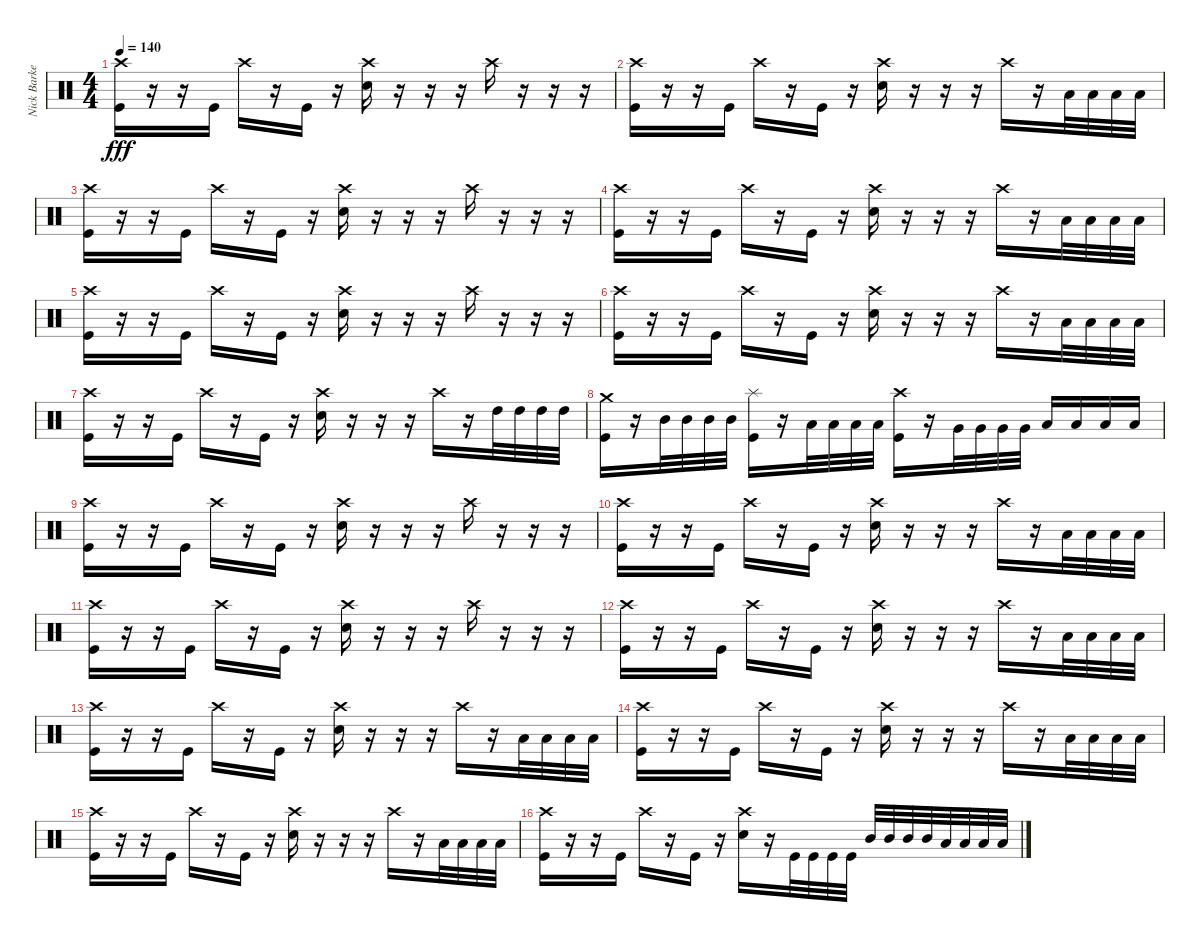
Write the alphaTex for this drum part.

\track ("Nick Barker" "Nick Barke") {instrument percussion}
\staff {score}
\articulation defaults
\ts (4 4)
\tempo 140
\clef neutral
\ks c
("Crash high (hit)" "Kick (hit)").16{dy fff} r.16 r.16 "Kick (hit)".16 "Crash high (hit)".16 r.16 "Kick (hit)".16 r.16 ("Crash high (hit)" "Electric Snare (hit)").16 r.16 r.16 r.16 "Crash high (hit)".16 r.16 r.16 r.16 |
("Crash high (hit)" "Kick (hit)").16 r.16 r.16 "Kick (hit)".16 "Crash high (hit)".16 r.16 "Kick (hit)".16 r.16 ("Crash high (hit)" "Electric Snare (hit)").16 r.16 r.16 r.16 "Crash high (hit)".16 r.16 "Low Tom (hit)".32 "Low Tom (hit)".32 "Low Tom (hit)".32 "Low Tom (hit)".32 |
("Crash high (hit)" "Kick (hit)").16 r.16 r.16 "Kick (hit)".16 "Crash high (hit)".16 r.16 "Kick (hit)".16 r.16 ("Crash high (hit)" "Electric Snare (hit)").16 r.16 r.16 r.16 "Crash high (hit)".16 r.16 r.16 r.16 |
("Crash high (hit)" "Kick (hit)").16 r.16 r.16 "Kick (hit)".16 "Crash high (hit)".16 r.16 "Kick (hit)".16 r.16 ("Crash high (hit)" "Electric Snare (hit)").16 r.16 r.16 r.16 "Crash high (hit)".16 r.16 "Low Tom (hit)".32 "Low Tom (hit)".32 "Low Tom (hit)".32 "Low Tom (hit)".32 |
("Crash high (hit)" "Kick (hit)").16 r.16 r.16 "Kick (hit)".16 "Crash high (hit)".16 r.16 "Kick (hit)".16 r.16 ("Crash high (hit)" "Electric Snare (hit)").16 r.16 r.16 r.16 "Crash high (hit)".16 r.16 r.16 r.16 |
("Crash high (hit)" "Kick (hit)").16 r.16 r.16 "Kick (hit)".16 "Crash high (hit)".16 r.16 "Kick (hit)".16 r.16 ("Crash high (hit)" "Electric Snare (hit)").16 r.16 r.16 r.16 "Crash high (hit)".16 r.16 "Low Tom (hit)".32 "Low Tom (hit)".32 "Low Tom (hit)".32 "Low Tom (hit)".32 |
("Crash high (hit)" "Kick (hit)").16 r.16 r.16 "Kick (hit)".16 "Crash high (hit)".16 r.16 "Kick (hit)".16 r.16 ("Crash high (hit)" "Electric Snare (hit)").16 r.16 r.16 r.16 "Crash high (hit)".16 r.16 "High Tom (hit)".32 "High Tom (hit)".32 "High Tom (hit)".32 "High Tom (hit)".32 |
("Crash medium (hit)" "Kick (hit)").16 r.16 "Mid Tom (hit)".32 "Mid Tom (hit)".32 "Mid Tom (hit)".32 "Mid Tom (hit)".32 ("Splash (hit)" "Kick (hit)").16 r.16 "Low Tom (hit)".32 "Low Tom (hit)".32 "Low Tom (hit)".32 "Low Tom (hit)".32 ("Crash high (hit)" "Kick (hit)").16 r.16 "Very Low Tom (hit)".32 "Very Low Tom (hit)".32 "Very Low Tom (hit)".32 "Very Low Tom (hit)".32 "Low Floor Tom (hit)".16 "Low Floor Tom (hit)".16 "Low Floor Tom (hit)".16 "Low Floor Tom (hit)".16 |
("Crash high (hit)" "Kick (hit)").16 r.16 r.16 "Kick (hit)".16 "Crash high (hit)".16 r.16 "Kick (hit)".16 r.16 ("Crash high (hit)" "Electric Snare (hit)").16 r.16 r.16 r.16 "Crash high (hit)".16 r.16 r.16 r.16 |
("Crash high (hit)" "Kick (hit)").16 r.16 r.16 "Kick (hit)".16 "Crash high (hit)".16 r.16 "Kick (hit)".16 r.16 ("Crash high (hit)" "Electric Snare (hit)").16 r.16 r.16 r.16 "Crash high (hit)".16 r.16 "Low Tom (hit)".32 "Low Tom (hit)".32 "Low Tom (hit)".32 "Low Tom (hit)".32 |
("Crash high (hit)" "Kick (hit)").16 r.16 r.16 "Kick (hit)".16 "Crash high (hit)".16 r.16 "Kick (hit)".16 r.16 ("Crash high (hit)" "Electric Snare (hit)").16 r.16 r.16 r.16 "Crash high (hit)".16 r.16 r.16 r.16 |
("Crash high (hit)" "Kick (hit)").16 r.16 r.16 "Kick (hit)".16 "Crash high (hit)".16 r.16 "Kick (hit)".16 r.16 ("Crash high (hit)" "Electric Snare (hit)").16 r.16 r.16 r.16 "Crash high (hit)".16 r.16 "Low Tom (hit)".32 "Low Tom (hit)".32 "Low Tom (hit)".32 "Low Tom (hit)".32 |
("Crash high (hit)" "Kick (hit)").16 r.16 r.16 "Kick (hit)".16 "Crash high (hit)".16 r.16 "Kick (hit)".16 r.16 ("Crash high (hit)" "Electric Snare (hit)").16 r.16 r.16 r.16 "Crash high (hit)".16 r.16 "Low Tom (hit)".32 "Low Tom (hit)".32 "Low Tom (hit)".32 "Low Tom (hit)".32 |
("Crash high (hit)" "Kick (hit)").16 r.16 r.16 "Kick (hit)".16 "Crash high (hit)".16 r.16 "Kick (hit)".16 r.16 ("Crash high (hit)" "Electric Snare (hit)").16 r.16 r.16 r.16 "Crash high (hit)".16 r.16 "Low Tom (hit)".32 "Low Tom (hit)".32 "Low Tom (hit)".32 "Low Tom (hit)".32 |
("Crash high (hit)" "Kick (hit)").16 r.16 r.16 "Kick (hit)".16 "Crash high (hit)".16 r.16 "Kick (hit)".16 r.16 ("Crash high (hit)" "Electric Snare (hit)").16 r.16 r.16 r.16 "Crash high (hit)".16 r.16 "Low Tom (hit)".32 "Low Tom (hit)".32 "Low Tom (hit)".32 "Low Tom (hit)".32 |
("Crash high (hit)" "Kick (hit)").16 r.16 r.16 "Kick (hit)".16 "Crash high (hit)".16 r.16 "Kick (hit)".16 r.16 ("Crash high (hit)" "Electric Snare (hit)").16 r.16 "Kick (hit)".32 "Kick (hit)".32 "Kick (hit)".32 "Kick (hit)".32 "Mid Tom (hit)".32 "Mid Tom (hit)".32 "Mid Tom (hit)".32 "Mid Tom (hit)".32 "Low Tom (hit)".32 "Low Tom (hit)".32 "Low Tom (hit)".32 "Low Tom (hit)".32
